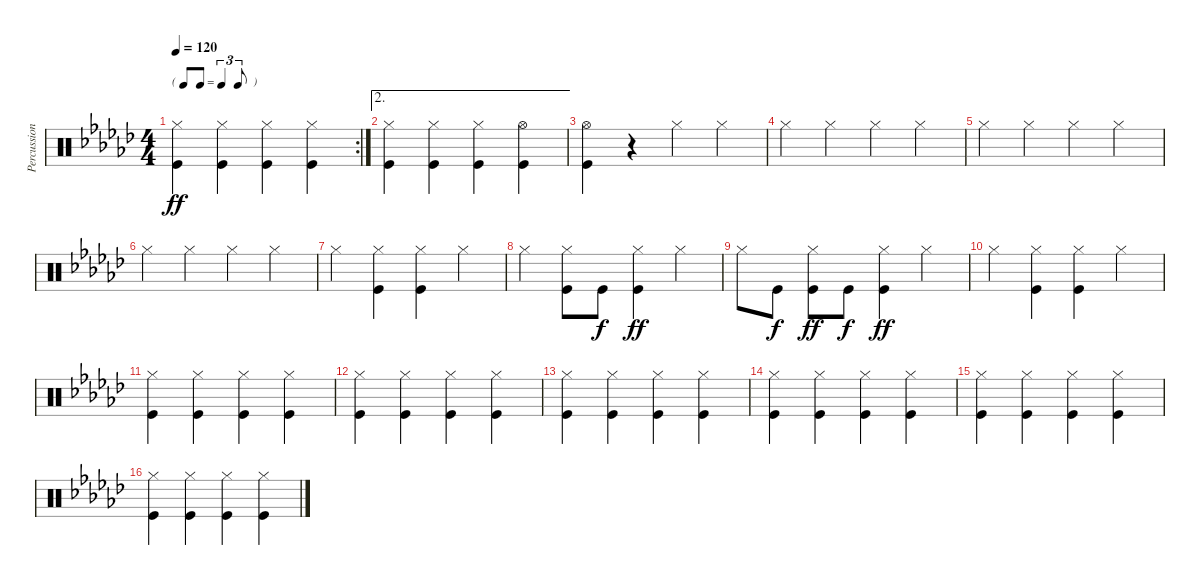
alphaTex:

\track ("Percussion" "Percussion") {instrument percussion}
\staff {score}
\articulation defaults
\rc 2
\ts (4 4)
\tf triplet8th
\tempo 120
\clef neutral
\ks gb
("Hi-Hat (closed)" "Kick (hit)").4{dy ff} ("Hi-Hat (closed)" "Kick (hit)").4 ("Hi-Hat (closed)" "Kick (hit)").4 ("Hi-Hat (closed)" "Kick (hit)").4 |
\ae 2
("Hi-Hat (closed)" "Kick (hit)").4 ("Hi-Hat (closed)" "Kick (hit)").4 ("Hi-Hat (closed)" "Kick (hit)").4 ("Hi-Hat (open)" "Kick (hit)").4 |
("Hi-Hat (open)" "Kick (hit)").4 r.4 "Hi-Hat (closed)".4 "Hi-Hat (closed)".4 |
"Hi-Hat (closed)".4 "Hi-Hat (closed)".4 "Hi-Hat (closed)".4 "Hi-Hat (closed)".4 |
"Hi-Hat (closed)".4 "Hi-Hat (closed)".4 "Hi-Hat (closed)".4 "Hi-Hat (closed)".4 |
"Hi-Hat (closed)".4 "Hi-Hat (closed)".4 "Hi-Hat (closed)".4 "Hi-Hat (closed)".4 |
"Hi-Hat (closed)".4 ("Hi-Hat (closed)" "Kick (hit)").4 ("Hi-Hat (closed)" "Kick (hit)").4 "Hi-Hat (closed)".4 |
"Hi-Hat (closed)".4 ("Hi-Hat (closed)" "Kick (hit)").8 "Kick (hit)".8{dy f} ("Hi-Hat (closed)" "Kick (hit)").4{dy ff} "Hi-Hat (closed)".4 |
"Hi-Hat (closed)".8 "Kick (hit)".8{dy f} ("Hi-Hat (closed)" "Kick (hit)").8{dy ff} "Kick (hit)".8{dy f} ("Hi-Hat (closed)" "Kick (hit)").4{dy ff} "Hi-Hat (closed)".4 |
"Hi-Hat (closed)".4 ("Hi-Hat (closed)" "Kick (hit)").4 ("Hi-Hat (closed)" "Kick (hit)").4 "Hi-Hat (closed)".4 |
("Hi-Hat (closed)" "Kick (hit)").4 ("Hi-Hat (closed)" "Kick (hit)").4 ("Hi-Hat (closed)" "Kick (hit)").4 ("Hi-Hat (closed)" "Kick (hit)").4 |
("Hi-Hat (closed)" "Kick (hit)").4 ("Hi-Hat (closed)" "Kick (hit)").4 ("Hi-Hat (closed)" "Kick (hit)").4 ("Hi-Hat (closed)" "Kick (hit)").4 |
("Hi-Hat (closed)" "Kick (hit)").4 ("Hi-Hat (closed)" "Kick (hit)").4 ("Hi-Hat (closed)" "Kick (hit)").4 ("Hi-Hat (closed)" "Kick (hit)").4 |
("Hi-Hat (closed)" "Kick (hit)").4 ("Hi-Hat (closed)" "Kick (hit)").4 ("Hi-Hat (closed)" "Kick (hit)").4 ("Hi-Hat (closed)" "Kick (hit)").4 |
("Hi-Hat (closed)" "Kick (hit)").4 ("Hi-Hat (closed)" "Kick (hit)").4 ("Hi-Hat (closed)" "Kick (hit)").4 ("Hi-Hat (closed)" "Kick (hit)").4 |
("Hi-Hat (closed)" "Kick (hit)").4 ("Hi-Hat (closed)" "Kick (hit)").4 ("Hi-Hat (closed)" "Kick (hit)").4 ("Hi-Hat (closed)" "Kick (hit)").4
